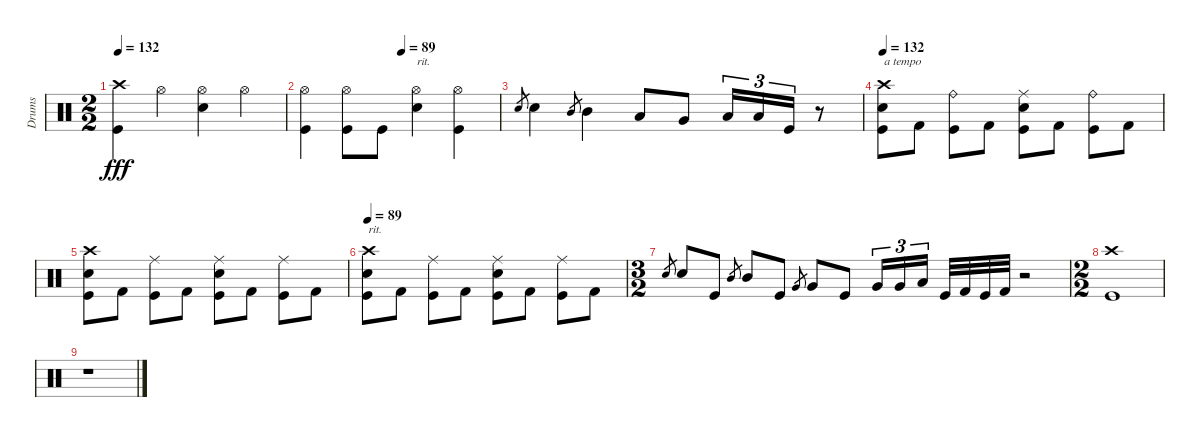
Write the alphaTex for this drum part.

\track ("Drums" "Drums") {instrument percussion}
\staff {score}
\articulation defaults
\ts (2 2)
\tempo 132
\clef neutral
\ks c
("Crash high (hit)" "Kick (hit)").4{dy fff} "Hi-Hat (open)".4 ("Hi-Hat (open)" "Snare (hit) 2").4 "Hi-Hat (open)".4 |
\tempo (89 0.5)
("Hi-Hat (open)" "Kick (hit)").4 ("Hi-Hat (open)" "Kick (hit)").8 "Kick (hit)".8 ("Hi-Hat (open)" "Snare (hit) 2").4{txt "rit."} ("Hi-Hat (open)" "Kick (hit)").4 |
"Snare (hit) 2".8{gr} "Snare (hit) 2".4 "Mid Tom (hit)".8{gr} "Mid Tom (hit)".4 "Low Tom (hit)".8 "Very Low Tom (hit)".8 "Low Floor Tom (hit)".16{tu (3 2)} "Low Floor Tom (hit)".16{tu (3 2)} "Kick (hit)".16{tu (3 2)} r.8 |
\tempo 132
("Crash high (hit)" "Snare (hit) 2" "Kick (hit)").8{txt "a tempo"} "Kick (hit) 2".8 ("Ride (bell)" "Kick (hit)").8 "Kick (hit) 2".8 ("Ride (middle)" "Snare (hit) 2" "Kick (hit)").8 "Kick (hit) 2".8 ("Ride (bell)" "Kick (hit)").8 "Kick (hit) 2".8 |
("Crash high (hit)" "Snare (hit) 2" "Kick (hit)").8 "Kick (hit) 2".8 ("Ride (middle)" "Kick (hit)").8 "Kick (hit) 2".8 ("Ride (middle)" "Snare (hit) 2" "Kick (hit)").8 "Kick (hit) 2".8 ("Ride (middle)" "Kick (hit)").8 "Kick (hit) 2".8 |
\tempo 89
("Crash high (hit)" "Snare (hit) 2" "Kick (hit)").8{txt "rit."} "Kick (hit) 2".8 ("Ride (middle)" "Kick (hit)").8 "Kick (hit) 2".8 ("Ride (middle)" "Snare (hit) 2" "Kick (hit)").8 "Kick (hit) 2".8 ("Ride (middle)" "Kick (hit)").8 "Kick (hit) 2".8 |
\ts (3 2)
"Snare (hit) 2".8{gr} "Snare (hit) 2".8 "Kick (hit)".8 "Mid Tom (hit)".8{gr} "Mid Tom (hit)".8 "Kick (hit)".8 "Very Low Tom (hit)".8{gr} "Very Low Tom (hit)".8 "Kick (hit)".8 "Very Low Tom (hit)".16{tu (3 2)} "Very Low Tom (hit)".16{tu (3 2)} "Low Floor Tom (hit)".16{tu (3 2)} "Kick (hit)".32 "Kick (hit) 2".32 "Kick (hit)".32 "Kick (hit) 2".32 r.2 |
\ts (2 2)
("Crash high (hit)" "Kick (hit)").1 |
r.1
